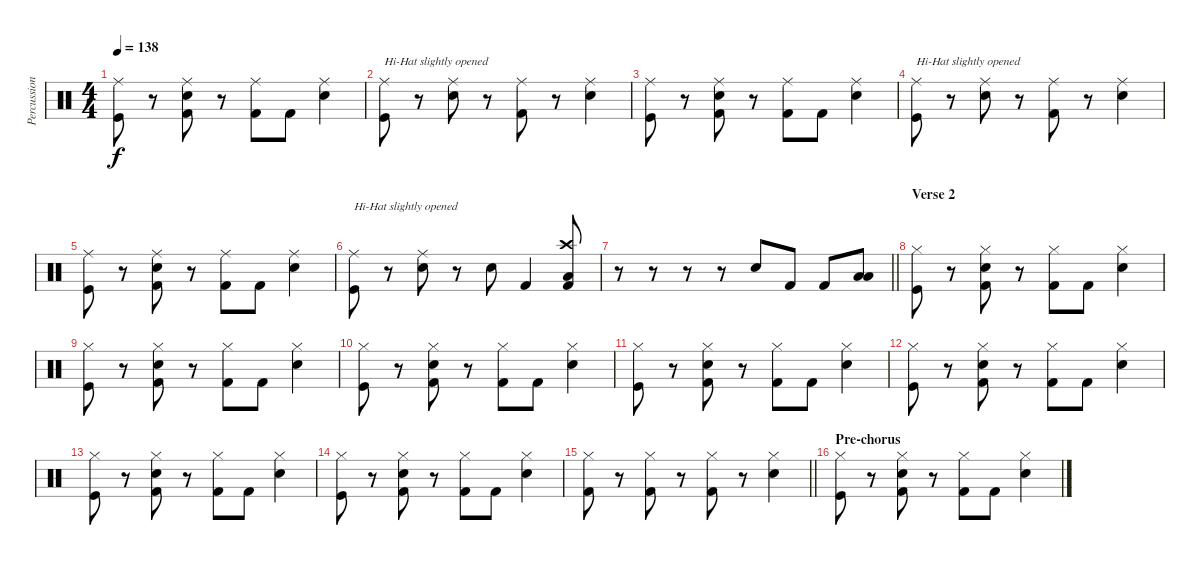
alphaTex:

\track ("Percussion" "Percussion") {instrument percussion}
\staff {score}
\articulation defaults
\ts (4 4)
\tempo 138
\clef neutral
\ks c
("Ride (middle)" "Kick (hit)").8{dy f} r.8 ("Ride (middle)" "Electric Snare (hit)" "Kick (hit) 2").8 r.8 ("Ride (middle)" "Kick (hit) 2").8 "Kick (hit) 2".8 ("Ride (middle)" "Electric Snare (hit)").4 |
("Ride (middle)" "Kick (hit)").8{txt "Hi-Hat slightly opened"} r.8 ("Ride (middle)" "Electric Snare (hit)").8 r.8 ("Ride (middle)" "Kick (hit) 2").8 r.8 ("Ride (middle)" "Electric Snare (hit)").4 |
("Ride (middle)" "Kick (hit)").8 r.8 ("Ride (middle)" "Electric Snare (hit)" "Kick (hit) 2").8 r.8 ("Ride (middle)" "Kick (hit) 2").8 "Kick (hit) 2".8 ("Ride (middle)" "Electric Snare (hit)").4 |
("Ride (middle)" "Kick (hit)").8{txt "Hi-Hat slightly opened"} r.8 ("Ride (middle)" "Electric Snare (hit)").8 r.8 ("Ride (middle)" "Kick (hit) 2").8 r.8 ("Ride (middle)" "Electric Snare (hit)").4 |
("Ride (middle)" "Kick (hit)").8 r.8 ("Ride (middle)" "Electric Snare (hit)" "Kick (hit) 2").8 r.8 ("Ride (middle)" "Kick (hit) 2").8 "Kick (hit) 2".8 ("Ride (middle)" "Electric Snare (hit)").4 |
("Ride (middle)" "Kick (hit)").8{txt "Hi-Hat slightly opened"} r.8 ("Ride (middle)" "Electric Snare (hit)").8 r.8 "Electric Snare (hit)".8 "Kick (hit) 2".4 ("Crash high (hit)" "Low Floor Tom (hit)" "Kick (hit) 2").8 |
\barLineRight lightlight
r.8 r.8 r.8 r.8 "Electric Snare (hit)".8 "Kick (hit) 2".8 "Kick (hit) 2".8 ("Low Tom (hit)" "Low Floor Tom (hit)").8 |
\section ("" "Verse 2")
("Hi-Hat (closed)" "Kick (hit)").8 r.8 ("Hi-Hat (closed)" "Electric Snare (hit)" "Kick (hit) 2").8 r.8 ("Hi-Hat (closed)" "Kick (hit) 2").8 "Kick (hit) 2".8 ("Hi-Hat (closed)" "Electric Snare (hit)").4 |
("Hi-Hat (closed)" "Kick (hit)").8 r.8 ("Hi-Hat (closed)" "Electric Snare (hit)" "Kick (hit) 2").8 r.8 ("Hi-Hat (closed)" "Kick (hit) 2").8 "Kick (hit) 2".8 ("Hi-Hat (closed)" "Electric Snare (hit)").4 |
("Hi-Hat (closed)" "Kick (hit)").8 r.8 ("Hi-Hat (closed)" "Electric Snare (hit)" "Kick (hit) 2").8 r.8 ("Hi-Hat (closed)" "Kick (hit) 2").8 "Kick (hit) 2".8 ("Hi-Hat (closed)" "Electric Snare (hit)").4 |
("Hi-Hat (closed)" "Kick (hit)").8 r.8 ("Hi-Hat (closed)" "Electric Snare (hit)" "Kick (hit) 2").8 r.8 ("Hi-Hat (closed)" "Kick (hit) 2").8 "Kick (hit) 2".8 ("Hi-Hat (closed)" "Electric Snare (hit)").4 |
("Hi-Hat (closed)" "Kick (hit)").8 r.8 ("Hi-Hat (closed)" "Electric Snare (hit)" "Kick (hit) 2").8 r.8 ("Hi-Hat (closed)" "Kick (hit) 2").8 "Kick (hit) 2".8 ("Hi-Hat (closed)" "Electric Snare (hit)").4 |
("Hi-Hat (closed)" "Kick (hit)").8 r.8 ("Hi-Hat (closed)" "Electric Snare (hit)" "Kick (hit) 2").8 r.8 ("Hi-Hat (closed)" "Kick (hit) 2").8 "Kick (hit) 2".8 ("Hi-Hat (closed)" "Electric Snare (hit)").4 |
("Hi-Hat (closed)" "Kick (hit)").8 r.8 ("Hi-Hat (closed)" "Electric Snare (hit)" "Kick (hit) 2").8 r.8 ("Hi-Hat (closed)" "Kick (hit) 2").8 "Kick (hit) 2".8 ("Hi-Hat (closed)" "Electric Snare (hit)").4 |
\barLineRight lightlight
("Hi-Hat (closed)" "Kick (hit) 2").8 r.8 ("Hi-Hat (closed)" "Kick (hit) 2").8 r.8 ("Hi-Hat (closed)" "Kick (hit) 2").8 r.8 ("Hi-Hat (closed)" "Electric Snare (hit)").4 |
\section ("" "Pre-chorus")
("Hi-Hat (closed)" "Kick (hit)").8 r.8 ("Hi-Hat (closed)" "Electric Snare (hit)" "Kick (hit) 2").8 r.8 ("Hi-Hat (closed)" "Kick (hit) 2").8 "Kick (hit) 2".8 ("Hi-Hat (closed)" "Electric Snare (hit)").4
